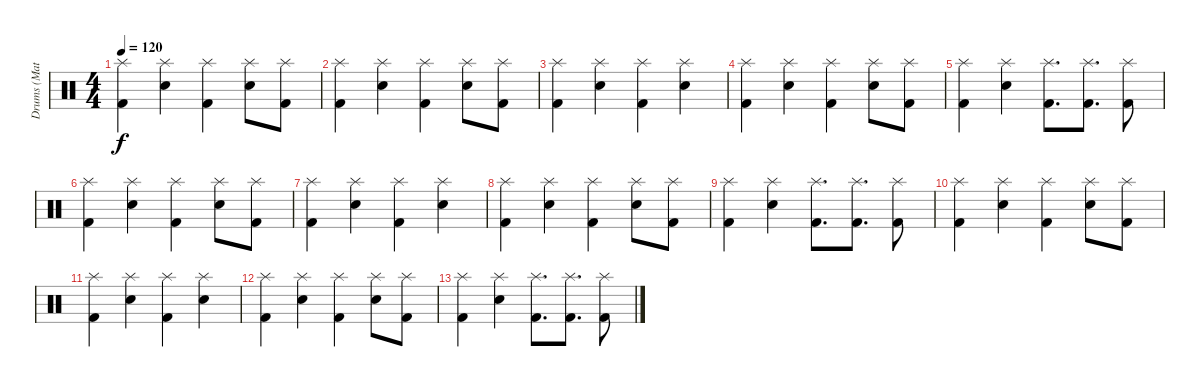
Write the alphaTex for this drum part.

\track ("Drums (Matt)" "Drums (Mat") {instrument percussion}
\staff {score}
\articulation defaults
\ts (4 4)
\tempo 120
\clef neutral
\ks c
("Splash (hit)" "Kick (hit) 2").4{dy f} ("Splash (hit)" "Snare (hit) 2").4 ("Splash (hit)" "Kick (hit) 2").4 ("Splash (hit)" "Snare (hit) 2").8 ("Splash (hit)" "Kick (hit) 2").8 |
("Splash (hit)" "Kick (hit) 2").4 ("Splash (hit)" "Snare (hit) 2").4 ("Splash (hit)" "Kick (hit) 2").4 ("Splash (hit)" "Snare (hit) 2").8 ("Splash (hit)" "Kick (hit) 2").8 |
("Splash (hit)" "Kick (hit) 2").4 ("Splash (hit)" "Snare (hit) 2").4 ("Splash (hit)" "Kick (hit) 2").4 ("Splash (hit)" "Snare (hit) 2").4 |
("Splash (hit)" "Kick (hit) 2").4 ("Splash (hit)" "Snare (hit) 2").4 ("Splash (hit)" "Kick (hit) 2").4 ("Splash (hit)" "Snare (hit) 2").8 ("Splash (hit)" "Kick (hit) 2").8 |
("Splash (hit)" "Kick (hit) 2").4 ("Splash (hit)" "Snare (hit) 2").4 ("Splash (hit)" "Kick (hit) 2").8{d} ("Splash (hit)" "Kick (hit) 2").8{d} ("Splash (hit)" "Kick (hit) 2").8 |
("Splash (hit)" "Kick (hit) 2").4 ("Splash (hit)" "Snare (hit) 2").4 ("Splash (hit)" "Kick (hit) 2").4 ("Splash (hit)" "Snare (hit) 2").8 ("Splash (hit)" "Kick (hit) 2").8 |
("Splash (hit)" "Kick (hit) 2").4 ("Splash (hit)" "Snare (hit) 2").4 ("Splash (hit)" "Kick (hit) 2").4 ("Splash (hit)" "Snare (hit) 2").4 |
("Splash (hit)" "Kick (hit) 2").4 ("Splash (hit)" "Snare (hit) 2").4 ("Splash (hit)" "Kick (hit) 2").4 ("Splash (hit)" "Snare (hit) 2").8 ("Splash (hit)" "Kick (hit) 2").8 |
("Splash (hit)" "Kick (hit) 2").4 ("Splash (hit)" "Snare (hit) 2").4 ("Splash (hit)" "Kick (hit) 2").8{d} ("Splash (hit)" "Kick (hit) 2").8{d} ("Splash (hit)" "Kick (hit) 2").8 |
("Splash (hit)" "Kick (hit) 2").4 ("Splash (hit)" "Snare (hit) 2").4 ("Splash (hit)" "Kick (hit) 2").4 ("Splash (hit)" "Snare (hit) 2").8 ("Splash (hit)" "Kick (hit) 2").8 |
("Splash (hit)" "Kick (hit) 2").4 ("Splash (hit)" "Snare (hit) 2").4 ("Splash (hit)" "Kick (hit) 2").4 ("Splash (hit)" "Snare (hit) 2").4 |
("Splash (hit)" "Kick (hit) 2").4 ("Splash (hit)" "Snare (hit) 2").4 ("Splash (hit)" "Kick (hit) 2").4 ("Splash (hit)" "Snare (hit) 2").8 ("Splash (hit)" "Kick (hit) 2").8 |
("Splash (hit)" "Kick (hit) 2").4 ("Splash (hit)" "Snare (hit) 2").4 ("Splash (hit)" "Kick (hit) 2").8{d} ("Splash (hit)" "Kick (hit) 2").8{d} ("Splash (hit)" "Kick (hit) 2").8
